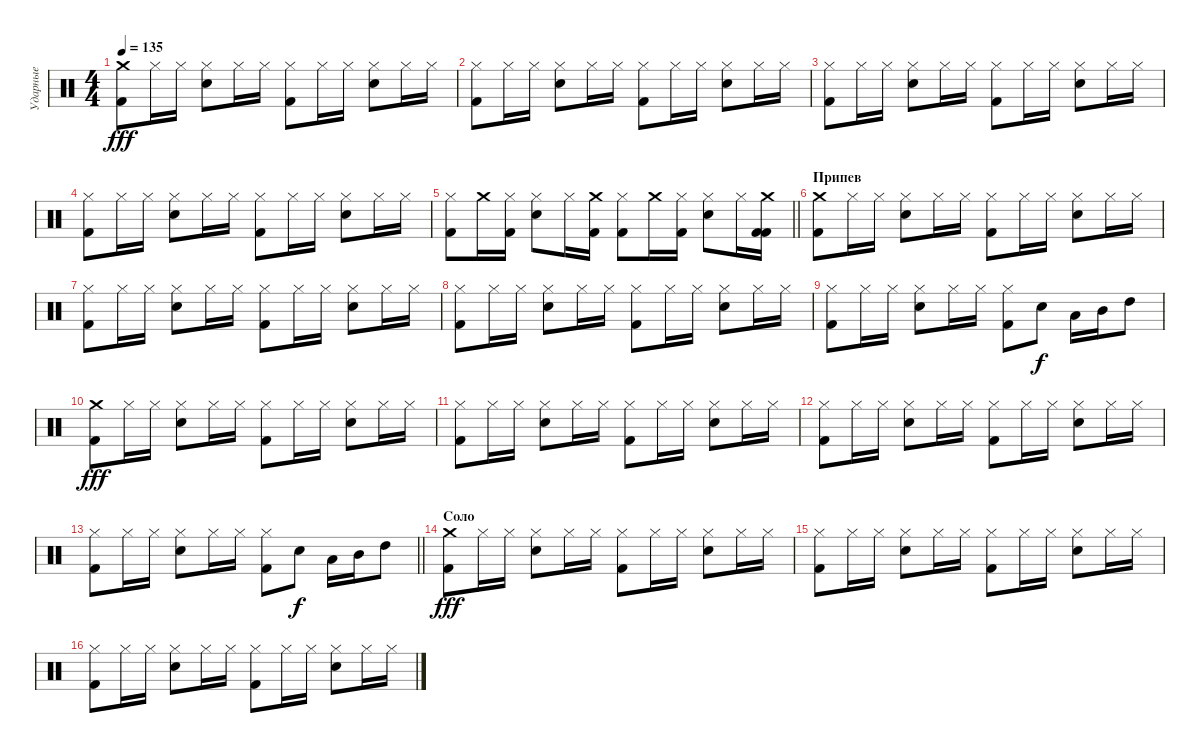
\track ("Ударные" "Ударные") {instrument percussion}
\staff {score}
\articulation defaults
\ts (4 4)
\tempo 135
\clef neutral
\ks c
("Crash medium (hit)" "Kick (hit) 2").8{dy fff} "Hi-Hat (closed)".16 "Hi-Hat (closed)".16 ("Hi-Hat (closed)" "Electric Snare (hit)").8 "Hi-Hat (closed)".16 "Hi-Hat (closed)".16 ("Hi-Hat (closed)" "Kick (hit) 2").8 "Hi-Hat (closed)".16 "Hi-Hat (closed)".16 ("Hi-Hat (closed)" "Electric Snare (hit)").8 "Hi-Hat (closed)".16 "Hi-Hat (closed)".16 |
("Hi-Hat (closed)" "Kick (hit) 2").8 "Hi-Hat (closed)".16 "Hi-Hat (closed)".16 ("Hi-Hat (closed)" "Electric Snare (hit)").8 "Hi-Hat (closed)".16 "Hi-Hat (closed)".16 ("Hi-Hat (closed)" "Kick (hit) 2").8 "Hi-Hat (closed)".16 "Hi-Hat (closed)".16 ("Hi-Hat (closed)" "Electric Snare (hit)").8 "Hi-Hat (closed)".16 "Hi-Hat (closed)".16 |
("Hi-Hat (closed)" "Kick (hit) 2").8 "Hi-Hat (closed)".16 "Hi-Hat (closed)".16 ("Hi-Hat (closed)" "Electric Snare (hit)").8 "Hi-Hat (closed)".16 "Hi-Hat (closed)".16 ("Hi-Hat (closed)" "Kick (hit) 2").8 "Hi-Hat (closed)".16 "Hi-Hat (closed)".16 ("Hi-Hat (closed)" "Electric Snare (hit)").8 "Hi-Hat (closed)".16 "Hi-Hat (closed)".16 |
("Hi-Hat (closed)" "Kick (hit) 2").8 "Hi-Hat (closed)".16 "Hi-Hat (closed)".16 ("Hi-Hat (closed)" "Electric Snare (hit)").8 "Hi-Hat (closed)".16 "Hi-Hat (closed)".16 ("Hi-Hat (closed)" "Kick (hit) 2").8 "Hi-Hat (closed)".16 "Hi-Hat (closed)".16 ("Hi-Hat (closed)" "Electric Snare (hit)").8 "Hi-Hat (closed)".16 "Hi-Hat (closed)".16 |
\barLineRight lightlight
("Hi-Hat (closed)" "Kick (hit) 2").8 "Crash medium (hit)".16 ("Hi-Hat (closed)" "Kick (hit) 2").16 ("Hi-Hat (closed)" "Electric Snare (hit)").8 "Hi-Hat (closed)".16 ("Crash medium (hit)" "Kick (hit) 2").16 ("Hi-Hat (closed)" "Kick (hit) 2").8 "Crash medium (hit)".16 ("Hi-Hat (closed)" "Kick (hit) 2").16 ("Hi-Hat (closed)" "Electric Snare (hit)").8 "Hi-Hat (closed)".16 ("Crash medium (hit)" "Kick (hit) 2" "Kick (hit) 2").16 |
\section ("" "Припев")
("Crash medium (hit)" "Kick (hit) 2").8 "Hi-Hat (closed)".16 "Hi-Hat (closed)".16 ("Hi-Hat (closed)" "Electric Snare (hit)").8 "Hi-Hat (closed)".16 "Hi-Hat (closed)".16 ("Hi-Hat (closed)" "Kick (hit) 2").8 "Hi-Hat (closed)".16 "Hi-Hat (closed)".16 ("Hi-Hat (closed)" "Electric Snare (hit)").8 "Hi-Hat (closed)".16 "Hi-Hat (closed)".16 |
("Hi-Hat (closed)" "Kick (hit) 2").8 "Hi-Hat (closed)".16 "Hi-Hat (closed)".16 ("Hi-Hat (closed)" "Electric Snare (hit)").8 "Hi-Hat (closed)".16 "Hi-Hat (closed)".16 ("Hi-Hat (closed)" "Kick (hit) 2").8 "Hi-Hat (closed)".16 "Hi-Hat (closed)".16 ("Hi-Hat (closed)" "Electric Snare (hit)").8 "Hi-Hat (closed)".16 "Hi-Hat (closed)".16 |
("Hi-Hat (closed)" "Kick (hit) 2").8 "Hi-Hat (closed)".16 "Hi-Hat (closed)".16 ("Hi-Hat (closed)" "Electric Snare (hit)").8 "Hi-Hat (closed)".16 "Hi-Hat (closed)".16 ("Hi-Hat (closed)" "Kick (hit) 2").8 "Hi-Hat (closed)".16 "Hi-Hat (closed)".16 ("Hi-Hat (closed)" "Electric Snare (hit)").8 "Hi-Hat (closed)".16 "Hi-Hat (closed)".16 |
("Hi-Hat (closed)" "Kick (hit) 2").8 "Hi-Hat (closed)".16 "Hi-Hat (closed)".16 ("Hi-Hat (closed)" "Electric Snare (hit)").8 "Hi-Hat (closed)".16 "Hi-Hat (closed)".16 ("Hi-Hat (closed)" "Kick (hit) 2").8 "Electric Snare (hit)".8{dy f} "Low Tom (hit)".16 "Mid Tom (hit)".16 "High Tom (hit)".8 |
("Crash medium (hit)" "Kick (hit) 2").8{dy fff} "Hi-Hat (closed)".16 "Hi-Hat (closed)".16 ("Hi-Hat (closed)" "Electric Snare (hit)").8 "Hi-Hat (closed)".16 "Hi-Hat (closed)".16 ("Hi-Hat (closed)" "Kick (hit) 2").8 "Hi-Hat (closed)".16 "Hi-Hat (closed)".16 ("Hi-Hat (closed)" "Electric Snare (hit)").8 "Hi-Hat (closed)".16 "Hi-Hat (closed)".16 |
("Hi-Hat (closed)" "Kick (hit) 2").8 "Hi-Hat (closed)".16 "Hi-Hat (closed)".16 ("Hi-Hat (closed)" "Electric Snare (hit)").8 "Hi-Hat (closed)".16 "Hi-Hat (closed)".16 ("Hi-Hat (closed)" "Kick (hit) 2").8 "Hi-Hat (closed)".16 "Hi-Hat (closed)".16 ("Hi-Hat (closed)" "Electric Snare (hit)").8 "Hi-Hat (closed)".16 "Hi-Hat (closed)".16 |
("Hi-Hat (closed)" "Kick (hit) 2").8 "Hi-Hat (closed)".16 "Hi-Hat (closed)".16 ("Hi-Hat (closed)" "Electric Snare (hit)").8 "Hi-Hat (closed)".16 "Hi-Hat (closed)".16 ("Hi-Hat (closed)" "Kick (hit) 2").8 "Hi-Hat (closed)".16 "Hi-Hat (closed)".16 ("Hi-Hat (closed)" "Electric Snare (hit)").8 "Hi-Hat (closed)".16 "Hi-Hat (closed)".16 |
\barLineRight lightlight
("Hi-Hat (closed)" "Kick (hit) 2").8 "Hi-Hat (closed)".16 "Hi-Hat (closed)".16 ("Hi-Hat (closed)" "Electric Snare (hit)").8 "Hi-Hat (closed)".16 "Hi-Hat (closed)".16 ("Hi-Hat (closed)" "Kick (hit) 2").8 "Electric Snare (hit)".8{dy f} "Low Tom (hit)".16 "Mid Tom (hit)".16 "High Tom (hit)".8 |
\section ("" "Соло")
("Crash medium (hit)" "Kick (hit) 2").8{dy fff} "Hi-Hat (closed)".16 "Hi-Hat (closed)".16 ("Hi-Hat (closed)" "Electric Snare (hit)").8 "Hi-Hat (closed)".16 "Hi-Hat (closed)".16 ("Hi-Hat (closed)" "Kick (hit) 2").8 "Hi-Hat (closed)".16 "Hi-Hat (closed)".16 ("Hi-Hat (closed)" "Electric Snare (hit)").8 "Hi-Hat (closed)".16 "Hi-Hat (closed)".16 |
("Hi-Hat (closed)" "Kick (hit) 2").8 "Hi-Hat (closed)".16 "Hi-Hat (closed)".16 ("Hi-Hat (closed)" "Electric Snare (hit)").8 "Hi-Hat (closed)".16 "Hi-Hat (closed)".16 ("Hi-Hat (closed)" "Kick (hit) 2").8 "Hi-Hat (closed)".16 "Hi-Hat (closed)".16 ("Hi-Hat (closed)" "Electric Snare (hit)").8 "Hi-Hat (closed)".16 "Hi-Hat (closed)".16 |
("Hi-Hat (closed)" "Kick (hit) 2").8 "Hi-Hat (closed)".16 "Hi-Hat (closed)".16 ("Hi-Hat (closed)" "Electric Snare (hit)").8 "Hi-Hat (closed)".16 "Hi-Hat (closed)".16 ("Hi-Hat (closed)" "Kick (hit) 2").8 "Hi-Hat (closed)".16 "Hi-Hat (closed)".16 ("Hi-Hat (closed)" "Electric Snare (hit)").8 "Hi-Hat (closed)".16 "Hi-Hat (closed)".16
